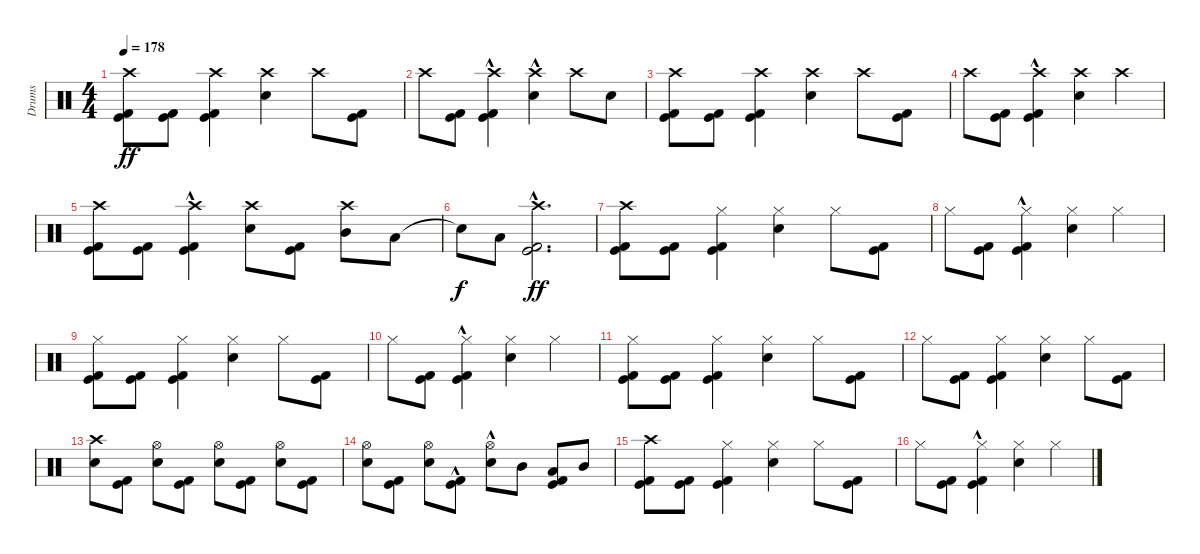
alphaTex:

\track ("Drums" "Drums") {instrument percussion}
\staff {score}
\articulation defaults
\ts (4 4)
\tempo 178
\clef neutral
\ks c
("Kick (hit)" "Kick (hit) 2" "Crash high (hit)").8{dy ff} ("Kick (hit)" "Kick (hit) 2").8 ("Kick (hit)" "Kick (hit) 2" "Crash high (hit)").4 ("Electric Snare (hit)" "Crash high (hit)").4 "Crash high (hit)".8 ("Kick (hit)" "Kick (hit) 2").8 |
"Crash high (hit)".8 ("Kick (hit)" "Kick (hit) 2").8 ("Kick (hit)"{hac} "Kick (hit) 2"{hac} "Crash high (hit)").4 ("Electric Snare (hit)"{hac} "Crash high (hit)").4 "Crash high (hit)".8 "Electric Snare (hit)".8 |
("Kick (hit)" "Kick (hit) 2" "Crash high (hit)").8 ("Kick (hit)" "Kick (hit) 2").8 ("Kick (hit)" "Kick (hit) 2" "Crash high (hit)").4 ("Electric Snare (hit)" "Crash high (hit)").4 "Crash high (hit)".8 ("Kick (hit)" "Kick (hit) 2").8 |
"Crash high (hit)".8 ("Kick (hit)" "Kick (hit) 2").8 ("Kick (hit)"{hac} "Kick (hit) 2"{hac} "Crash high (hit)").4 ("Electric Snare (hit)" "Crash high (hit)").4 "Crash high (hit)".4 |
("Kick (hit)" "Kick (hit) 2" "Crash high (hit)").8 ("Kick (hit)" "Kick (hit) 2").8 ("Kick (hit)"{hac} "Kick (hit) 2"{hac} "Crash high (hit)").4 ("Electric Snare (hit)" "Crash high (hit)").8 ("Kick (hit)" "Kick (hit) 2").8 ("Mid Tom (hit)" "Crash high (hit)").8 "Low Tom (hit)".8 |
"Snare (hit)"{t}.8{dy f} "Low Tom (hit)".8 ("Kick (hit)"{hac} "Kick (hit) 2"{hac} "Crash high (hit)"{hac}).2{d dy ff} |
("Kick (hit)" "Kick (hit) 2" "Crash high (hit)").8 ("Kick (hit)" "Kick (hit) 2").8 ("Kick (hit)" "Kick (hit) 2" "Hi-Hat (closed)").4 ("Electric Snare (hit)" "Hi-Hat (closed)").4 "Hi-Hat (closed)".8 ("Kick (hit)" "Kick (hit) 2").8 |
"Hi-Hat (closed)".8 ("Kick (hit)" "Kick (hit) 2").8 ("Kick (hit)"{hac} "Kick (hit) 2"{hac} "Hi-Hat (closed)").4 ("Electric Snare (hit)" "Hi-Hat (closed)").4 "Hi-Hat (closed)".4 |
("Kick (hit)" "Kick (hit) 2" "Hi-Hat (closed)").8 ("Kick (hit)" "Kick (hit) 2").8 ("Kick (hit)" "Kick (hit) 2" "Hi-Hat (closed)").4 ("Electric Snare (hit)" "Hi-Hat (closed)").4 "Hi-Hat (closed)".8 ("Kick (hit)" "Kick (hit) 2").8 |
"Hi-Hat (closed)".8 ("Kick (hit)" "Kick (hit) 2").8 ("Kick (hit)"{hac} "Kick (hit) 2"{hac} "Hi-Hat (closed)").4 ("Electric Snare (hit)" "Hi-Hat (closed)").4 "Hi-Hat (closed)".4 |
("Kick (hit)" "Kick (hit) 2" "Hi-Hat (closed)").8 ("Kick (hit)" "Kick (hit) 2").8 ("Kick (hit)" "Kick (hit) 2" "Hi-Hat (closed)").4 ("Electric Snare (hit)" "Hi-Hat (closed)").4 "Hi-Hat (closed)".8 ("Kick (hit)" "Kick (hit) 2").8 |
"Hi-Hat (closed)".8 ("Kick (hit)" "Kick (hit) 2").8 ("Kick (hit)" "Kick (hit) 2" "Hi-Hat (closed)").4 ("Electric Snare (hit)" "Hi-Hat (closed)").4 "Hi-Hat (closed)".8 ("Kick (hit)" "Kick (hit) 2").8 |
("Electric Snare (hit)" "Crash high (hit)").8 ("Kick (hit)" "Kick (hit) 2").8 ("Electric Snare (hit)" "Hi-Hat (open)").8 ("Kick (hit)" "Kick (hit) 2").8 ("Electric Snare (hit)" "Hi-Hat (open)").8 ("Kick (hit)" "Kick (hit) 2").8 ("Electric Snare (hit)" "Hi-Hat (open)").8 ("Kick (hit)" "Kick (hit) 2").8 |
("Electric Snare (hit)" "Hi-Hat (open)").8 ("Kick (hit)" "Kick (hit) 2").8 ("Electric Snare (hit)" "Hi-Hat (open)").8 ("Kick (hit)"{hac} "Kick (hit) 2"{hac}).8 ("Electric Snare (hit)" "Hi-Hat (open)"{hac}).8 "Mid Tom (hit)".8 ("Kick (hit)" "Kick (hit) 2" "Low Tom (hit)").8 "Mid Tom (hit)".8 |
("Kick (hit)" "Kick (hit) 2" "Crash high (hit)").8 ("Kick (hit)" "Kick (hit) 2").8 ("Kick (hit)" "Kick (hit) 2" "Hi-Hat (closed)").4 ("Electric Snare (hit)" "Hi-Hat (closed)").4 "Hi-Hat (closed)".8 ("Kick (hit)" "Kick (hit) 2").8 |
"Hi-Hat (closed)".8 ("Kick (hit)" "Kick (hit) 2").8 ("Kick (hit)"{hac} "Kick (hit) 2"{hac} "Hi-Hat (closed)").4 ("Electric Snare (hit)" "Hi-Hat (closed)").4 "Hi-Hat (closed)".4
